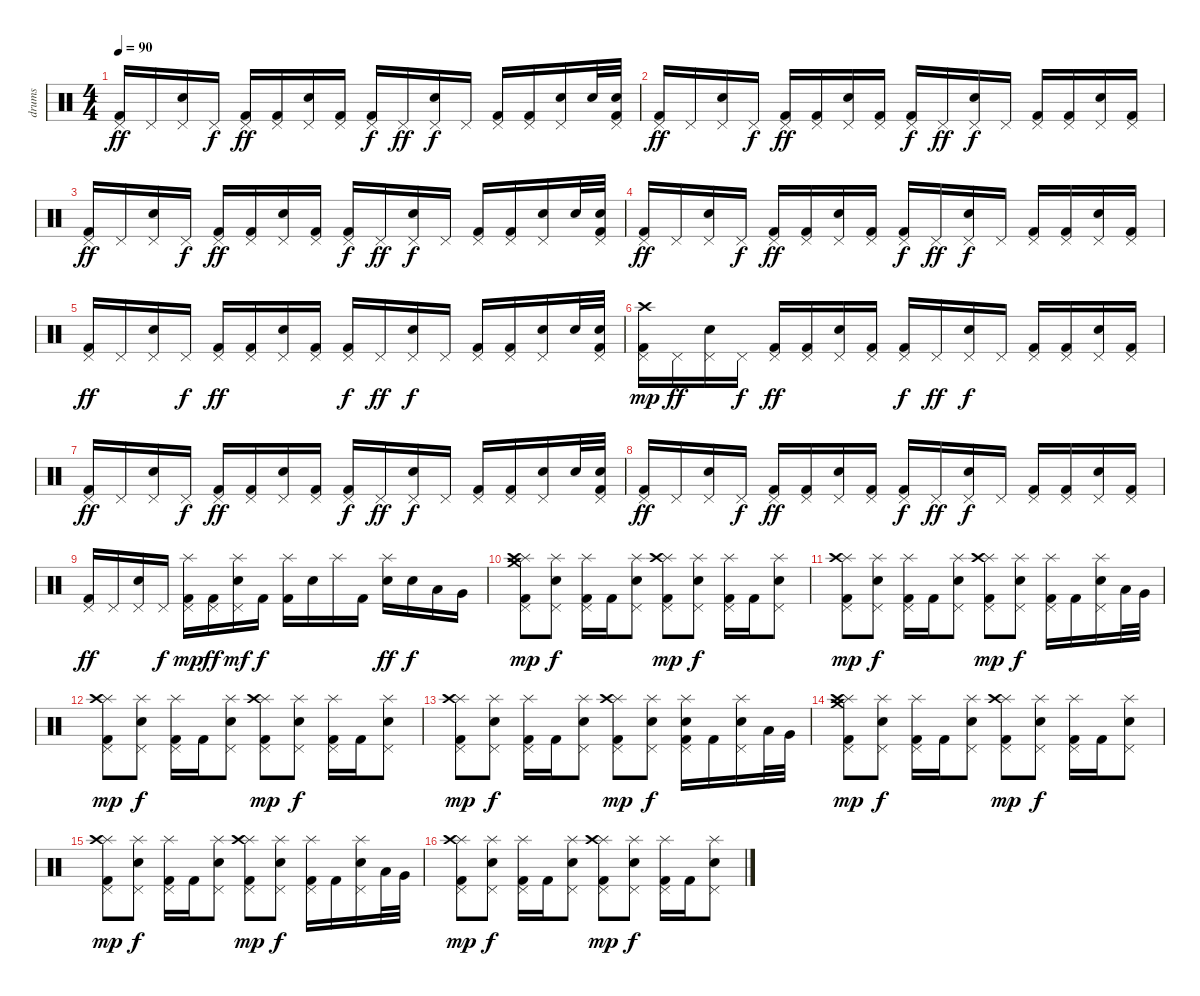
\track ("drums" "drums") {instrument percussion}
\staff {score}
\articulation defaults
\ts (4 4)
\tempo 90
\clef neutral
\ks c
("Pedal Hi-Hat (hit)" "Kick (hit) 2").16{dy ff} "Pedal Hi-Hat (hit)".16 ("Pedal Hi-Hat (hit)" "Electric Snare (hit)").16 "Pedal Hi-Hat (hit)".16{dy f} ("Pedal Hi-Hat (hit)" "Kick (hit) 2").16{dy ff} ("Pedal Hi-Hat (hit)" "Kick (hit) 2").16 ("Pedal Hi-Hat (hit)" "Electric Snare (hit)").16 ("Pedal Hi-Hat (hit)" "Kick (hit) 2").16 ("Pedal Hi-Hat (hit)" "Kick (hit) 2").16{dy f} "Pedal Hi-Hat (hit)".16{dy ff} ("Pedal Hi-Hat (hit)" "Electric Snare (hit)").16{dy f} "Pedal Hi-Hat (hit)".16 ("Pedal Hi-Hat (hit)" "Kick (hit) 2").16 ("Pedal Hi-Hat (hit)" "Kick (hit) 2").16 ("Pedal Hi-Hat (hit)" "Electric Snare (hit)").16 "Electric Snare (hit)".32 ("Pedal Hi-Hat (hit)" "Electric Snare (hit)" "Kick (hit) 2").32 |
("Pedal Hi-Hat (hit)" "Kick (hit) 2").16{dy ff} "Pedal Hi-Hat (hit)".16 ("Pedal Hi-Hat (hit)" "Electric Snare (hit)").16 "Pedal Hi-Hat (hit)".16{dy f} ("Pedal Hi-Hat (hit)" "Kick (hit) 2").16{dy ff} ("Pedal Hi-Hat (hit)" "Kick (hit) 2").16 ("Pedal Hi-Hat (hit)" "Electric Snare (hit)").16 ("Pedal Hi-Hat (hit)" "Kick (hit) 2").16 ("Pedal Hi-Hat (hit)" "Kick (hit) 2").16{dy f} "Pedal Hi-Hat (hit)".16{dy ff} ("Pedal Hi-Hat (hit)" "Electric Snare (hit)").16{dy f} "Pedal Hi-Hat (hit)".16 ("Pedal Hi-Hat (hit)" "Kick (hit) 2").16 ("Pedal Hi-Hat (hit)" "Kick (hit) 2").16 ("Pedal Hi-Hat (hit)" "Electric Snare (hit)").16 ("Pedal Hi-Hat (hit)" "Kick (hit) 2").16 |
("Pedal Hi-Hat (hit)" "Kick (hit) 2").16{dy ff} "Pedal Hi-Hat (hit)".16 ("Pedal Hi-Hat (hit)" "Electric Snare (hit)").16 "Pedal Hi-Hat (hit)".16{dy f} ("Pedal Hi-Hat (hit)" "Kick (hit) 2").16{dy ff} ("Pedal Hi-Hat (hit)" "Kick (hit) 2").16 ("Pedal Hi-Hat (hit)" "Electric Snare (hit)").16 ("Pedal Hi-Hat (hit)" "Kick (hit) 2").16 ("Pedal Hi-Hat (hit)" "Kick (hit) 2").16{dy f} "Pedal Hi-Hat (hit)".16{dy ff} ("Pedal Hi-Hat (hit)" "Electric Snare (hit)").16{dy f} "Pedal Hi-Hat (hit)".16 ("Pedal Hi-Hat (hit)" "Kick (hit) 2").16 ("Pedal Hi-Hat (hit)" "Kick (hit) 2").16 ("Pedal Hi-Hat (hit)" "Electric Snare (hit)").16 "Electric Snare (hit)".32 ("Pedal Hi-Hat (hit)" "Electric Snare (hit)" "Kick (hit) 2").32 |
("Pedal Hi-Hat (hit)" "Kick (hit) 2").16{dy ff} "Pedal Hi-Hat (hit)".16 ("Pedal Hi-Hat (hit)" "Electric Snare (hit)").16 "Pedal Hi-Hat (hit)".16{dy f} ("Pedal Hi-Hat (hit)" "Kick (hit) 2").16{dy ff} ("Pedal Hi-Hat (hit)" "Kick (hit) 2").16 ("Pedal Hi-Hat (hit)" "Electric Snare (hit)").16 ("Pedal Hi-Hat (hit)" "Kick (hit) 2").16 ("Pedal Hi-Hat (hit)" "Kick (hit) 2").16{dy f} "Pedal Hi-Hat (hit)".16{dy ff} ("Pedal Hi-Hat (hit)" "Electric Snare (hit)").16{dy f} "Pedal Hi-Hat (hit)".16 ("Pedal Hi-Hat (hit)" "Kick (hit) 2").16 ("Pedal Hi-Hat (hit)" "Kick (hit) 2").16 ("Pedal Hi-Hat (hit)" "Electric Snare (hit)").16 ("Pedal Hi-Hat (hit)" "Kick (hit) 2").16 |
("Pedal Hi-Hat (hit)" "Kick (hit) 2").16{dy ff} "Pedal Hi-Hat (hit)".16 ("Pedal Hi-Hat (hit)" "Electric Snare (hit)").16 "Pedal Hi-Hat (hit)".16{dy f} ("Pedal Hi-Hat (hit)" "Kick (hit) 2").16{dy ff} ("Pedal Hi-Hat (hit)" "Kick (hit) 2").16 ("Pedal Hi-Hat (hit)" "Electric Snare (hit)").16 ("Pedal Hi-Hat (hit)" "Kick (hit) 2").16 ("Pedal Hi-Hat (hit)" "Kick (hit) 2").16{dy f} "Pedal Hi-Hat (hit)".16{dy ff} ("Pedal Hi-Hat (hit)" "Electric Snare (hit)").16{dy f} "Pedal Hi-Hat (hit)".16 ("Pedal Hi-Hat (hit)" "Kick (hit) 2").16 ("Pedal Hi-Hat (hit)" "Kick (hit) 2").16 ("Pedal Hi-Hat (hit)" "Electric Snare (hit)").16 "Electric Snare (hit)".32 ("Pedal Hi-Hat (hit)" "Electric Snare (hit)" "Kick (hit) 2").32 |
("Pedal Hi-Hat (hit)" "Crash high (hit)" "Kick (hit) 2").16{dy mp} "Pedal Hi-Hat (hit)".16{dy ff} ("Pedal Hi-Hat (hit)" "Electric Snare (hit)").16 "Pedal Hi-Hat (hit)".16{dy f} ("Pedal Hi-Hat (hit)" "Kick (hit) 2").16{dy ff} ("Pedal Hi-Hat (hit)" "Kick (hit) 2").16 ("Pedal Hi-Hat (hit)" "Electric Snare (hit)").16 ("Pedal Hi-Hat (hit)" "Kick (hit) 2").16 ("Pedal Hi-Hat (hit)" "Kick (hit) 2").16{dy f} "Pedal Hi-Hat (hit)".16{dy ff} ("Pedal Hi-Hat (hit)" "Electric Snare (hit)").16{dy f} "Pedal Hi-Hat (hit)".16 ("Pedal Hi-Hat (hit)" "Kick (hit) 2").16 ("Pedal Hi-Hat (hit)" "Kick (hit) 2").16 ("Pedal Hi-Hat (hit)" "Electric Snare (hit)").16 ("Pedal Hi-Hat (hit)" "Kick (hit) 2").16 |
("Pedal Hi-Hat (hit)" "Kick (hit) 2").16{dy ff} "Pedal Hi-Hat (hit)".16 ("Pedal Hi-Hat (hit)" "Electric Snare (hit)").16 "Pedal Hi-Hat (hit)".16{dy f} ("Pedal Hi-Hat (hit)" "Kick (hit) 2").16{dy ff} ("Pedal Hi-Hat (hit)" "Kick (hit) 2").16 ("Pedal Hi-Hat (hit)" "Electric Snare (hit)").16 ("Pedal Hi-Hat (hit)" "Kick (hit) 2").16 ("Pedal Hi-Hat (hit)" "Kick (hit) 2").16{dy f} "Pedal Hi-Hat (hit)".16{dy ff} ("Pedal Hi-Hat (hit)" "Electric Snare (hit)").16{dy f} "Pedal Hi-Hat (hit)".16 ("Pedal Hi-Hat (hit)" "Kick (hit) 2").16 ("Pedal Hi-Hat (hit)" "Kick (hit) 2").16 ("Pedal Hi-Hat (hit)" "Electric Snare (hit)").16 "Electric Snare (hit)".32 ("Pedal Hi-Hat (hit)" "Electric Snare (hit)" "Kick (hit) 2").32 |
("Pedal Hi-Hat (hit)" "Kick (hit) 2").16{dy ff} "Pedal Hi-Hat (hit)".16 ("Pedal Hi-Hat (hit)" "Electric Snare (hit)").16 "Pedal Hi-Hat (hit)".16{dy f} ("Pedal Hi-Hat (hit)" "Kick (hit) 2").16{dy ff} ("Pedal Hi-Hat (hit)" "Kick (hit) 2").16 ("Pedal Hi-Hat (hit)" "Electric Snare (hit)").16 ("Pedal Hi-Hat (hit)" "Kick (hit) 2").16 ("Pedal Hi-Hat (hit)" "Kick (hit) 2").16{dy f} "Pedal Hi-Hat (hit)".16{dy ff} ("Pedal Hi-Hat (hit)" "Electric Snare (hit)").16{dy f} "Pedal Hi-Hat (hit)".16 ("Pedal Hi-Hat (hit)" "Kick (hit) 2").16 ("Pedal Hi-Hat (hit)" "Kick (hit) 2").16 ("Pedal Hi-Hat (hit)" "Electric Snare (hit)").16 ("Pedal Hi-Hat (hit)" "Kick (hit) 2").16 |
("Pedal Hi-Hat (hit)" "Kick (hit) 2").16{dy ff} "Pedal Hi-Hat (hit)".16 ("Pedal Hi-Hat (hit)" "Electric Snare (hit)").16 "Pedal Hi-Hat (hit)".16{dy f} ("Pedal Hi-Hat (hit)" "Splash (hit)" "Kick (hit) 2").16{dy mp} ("Pedal Hi-Hat (hit)" "Kick (hit) 2").16{dy ff} ("Pedal Hi-Hat (hit)" "Splash (hit)" "Electric Snare (hit)").16{dy mf} "Kick (hit) 2".16{dy f} ("Splash (hit)" "Kick (hit) 2").16 "Electric Snare (hit)".16 "Splash (hit)".16 "Kick (hit) 2".16 ("Splash (hit)" "Electric Snare (hit)").16{dy ff} "Electric Snare (hit)".16{dy f} "Low Tom (hit)".16 "Very Low Tom (hit)".16 |
("Splash (hit)" "Pedal Hi-Hat (hit)" "Crash high (hit)" "Crash medium (hit)" "Kick (hit) 2").8{dy mp} ("Splash (hit)" "Pedal Hi-Hat (hit)" "Electric Snare (hit)").8{dy f} ("Splash (hit)" "Pedal Hi-Hat (hit)" "Kick (hit) 2").16 "Kick (hit) 2".16 ("Splash (hit)" "Pedal Hi-Hat (hit)" "Electric Snare (hit)").8 ("Splash (hit)" "Pedal Hi-Hat (hit)" "Crash high (hit)" "Kick (hit) 2").8{dy mp} ("Splash (hit)" "Pedal Hi-Hat (hit)" "Electric Snare (hit)").8{dy f} ("Splash (hit)" "Pedal Hi-Hat (hit)" "Kick (hit) 2").16 "Kick (hit) 2".16 ("Splash (hit)" "Pedal Hi-Hat (hit)" "Electric Snare (hit)").8 |
("Splash (hit)" "Pedal Hi-Hat (hit)" "Crash high (hit)" "Kick (hit) 2").8{dy mp} ("Splash (hit)" "Pedal Hi-Hat (hit)" "Electric Snare (hit)").8{dy f} ("Splash (hit)" "Pedal Hi-Hat (hit)" "Kick (hit) 2").16 "Kick (hit) 2".16 ("Splash (hit)" "Pedal Hi-Hat (hit)" "Electric Snare (hit)").8 ("Splash (hit)" "Pedal Hi-Hat (hit)" "Crash high (hit)" "Kick (hit) 2").8{dy mp} ("Splash (hit)" "Pedal Hi-Hat (hit)" "Electric Snare (hit)").8{dy f} ("Splash (hit)" "Pedal Hi-Hat (hit)" "Kick (hit) 2").16 "Kick (hit) 2".16 ("Splash (hit)" "Pedal Hi-Hat (hit)" "Electric Snare (hit)").16 "Low Tom (hit)".32 "Very Low Tom (hit)".32 |
("Splash (hit)" "Pedal Hi-Hat (hit)" "Crash high (hit)" "Kick (hit) 2").8{dy mp} ("Splash (hit)" "Pedal Hi-Hat (hit)" "Electric Snare (hit)").8{dy f} ("Splash (hit)" "Pedal Hi-Hat (hit)" "Kick (hit) 2").16 "Kick (hit) 2".16 ("Splash (hit)" "Pedal Hi-Hat (hit)" "Electric Snare (hit)").8 ("Splash (hit)" "Pedal Hi-Hat (hit)" "Crash high (hit)" "Kick (hit) 2").8{dy mp} ("Splash (hit)" "Pedal Hi-Hat (hit)" "Electric Snare (hit)").8{dy f} ("Splash (hit)" "Pedal Hi-Hat (hit)" "Kick (hit) 2").16 "Kick (hit) 2".16 ("Splash (hit)" "Pedal Hi-Hat (hit)" "Electric Snare (hit)").8 |
("Splash (hit)" "Pedal Hi-Hat (hit)" "Crash high (hit)" "Kick (hit) 2").8{dy mp} ("Splash (hit)" "Pedal Hi-Hat (hit)" "Electric Snare (hit)").8{dy f} ("Splash (hit)" "Pedal Hi-Hat (hit)" "Kick (hit) 2").16 "Kick (hit) 2".16 ("Splash (hit)" "Pedal Hi-Hat (hit)" "Electric Snare (hit)").8 ("Splash (hit)" "Pedal Hi-Hat (hit)" "Crash high (hit)" "Kick (hit) 2").8{dy mp} ("Splash (hit)" "Pedal Hi-Hat (hit)" "Electric Snare (hit)").8{dy f} ("Splash (hit)" "Pedal Hi-Hat (hit)" "Electric Snare (hit)" "Kick (hit) 2").16 "Kick (hit) 2".16 ("Splash (hit)" "Pedal Hi-Hat (hit)" "Electric Snare (hit)").16 "Low Tom (hit)".32 "Very Low Tom (hit)".32 |
("Splash (hit)" "Pedal Hi-Hat (hit)" "Crash high (hit)" "Crash medium (hit)" "Kick (hit) 2").8{dy mp} ("Splash (hit)" "Pedal Hi-Hat (hit)" "Electric Snare (hit)").8{dy f} ("Splash (hit)" "Pedal Hi-Hat (hit)" "Kick (hit) 2").16 "Kick (hit) 2".16 ("Splash (hit)" "Pedal Hi-Hat (hit)" "Electric Snare (hit)").8 ("Splash (hit)" "Pedal Hi-Hat (hit)" "Crash high (hit)" "Kick (hit) 2").8{dy mp} ("Splash (hit)" "Pedal Hi-Hat (hit)" "Electric Snare (hit)").8{dy f} ("Splash (hit)" "Pedal Hi-Hat (hit)" "Kick (hit) 2").16 "Kick (hit) 2".16 ("Splash (hit)" "Pedal Hi-Hat (hit)" "Electric Snare (hit)").8 |
("Splash (hit)" "Pedal Hi-Hat (hit)" "Crash high (hit)" "Kick (hit) 2").8{dy mp} ("Splash (hit)" "Pedal Hi-Hat (hit)" "Electric Snare (hit)").8{dy f} ("Splash (hit)" "Pedal Hi-Hat (hit)" "Kick (hit) 2").16 "Kick (hit) 2".16 ("Splash (hit)" "Pedal Hi-Hat (hit)" "Electric Snare (hit)").8 ("Splash (hit)" "Pedal Hi-Hat (hit)" "Crash high (hit)" "Kick (hit) 2").8{dy mp} ("Splash (hit)" "Pedal Hi-Hat (hit)" "Electric Snare (hit)").8{dy f} ("Splash (hit)" "Pedal Hi-Hat (hit)" "Kick (hit) 2").16 "Kick (hit) 2".16 ("Splash (hit)" "Pedal Hi-Hat (hit)" "Electric Snare (hit)").16 "Low Tom (hit)".32 "Very Low Tom (hit)".32 |
("Splash (hit)" "Pedal Hi-Hat (hit)" "Crash high (hit)" "Kick (hit) 2").8{dy mp} ("Splash (hit)" "Pedal Hi-Hat (hit)" "Electric Snare (hit)").8{dy f} ("Splash (hit)" "Pedal Hi-Hat (hit)" "Kick (hit) 2").16 "Kick (hit) 2".16 ("Splash (hit)" "Pedal Hi-Hat (hit)" "Electric Snare (hit)").8 ("Splash (hit)" "Pedal Hi-Hat (hit)" "Crash high (hit)" "Kick (hit) 2").8{dy mp} ("Splash (hit)" "Pedal Hi-Hat (hit)" "Electric Snare (hit)").8{dy f} ("Splash (hit)" "Pedal Hi-Hat (hit)" "Kick (hit) 2").16 "Kick (hit) 2".16 ("Splash (hit)" "Pedal Hi-Hat (hit)" "Electric Snare (hit)").8
